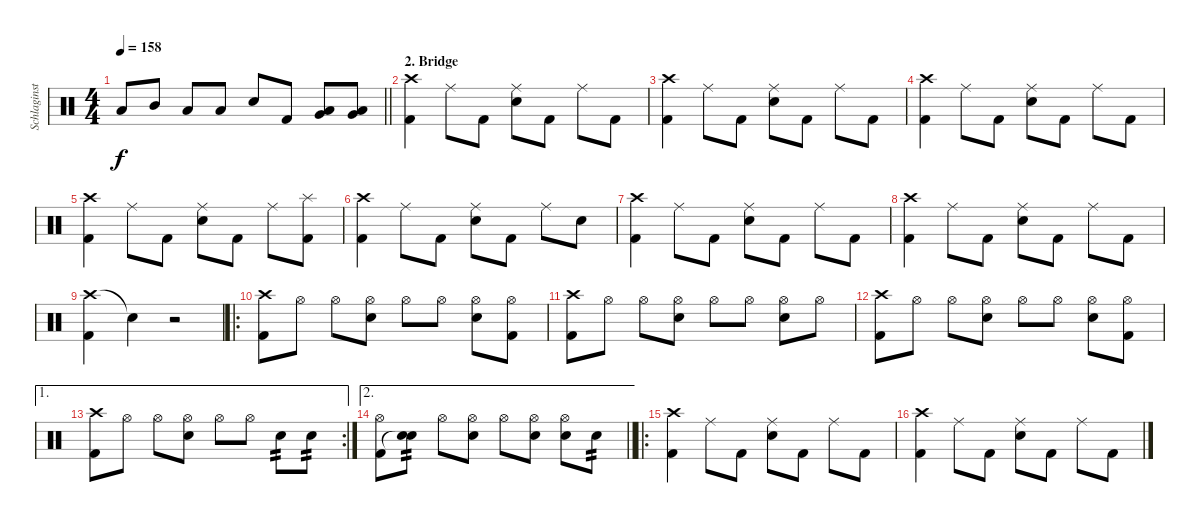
\track ("Schlaginstrumente - Auswahl" "Schlaginst") {instrument percussion}
\staff {score}
\articulation defaults
\ts (4 4)
\tempo 158
\clef neutral
\barLineRight lightlight
\ks c "Low Tom (hit)".8{dy f} "Mid Tom (hit)".8 "Low Tom (hit)".8 "Low Tom (hit)".8 "Snare (hit) 2".8 "Kick (hit) 2".8
("Low Floor Tom (hit)" "Very Low Tom (hit)").8 ("Low Floor Tom (hit)" "Very Low Tom (hit)").8 |
\section ("" "2. Bridge")
("Crash high (hit)" "Kick (hit) 2").4 "Ride (middle)".8 "Kick (hit) 2".8 ("Ride (middle)" "Snare (hit) 2").8 "Kick (hit) 2".8 "Ride (middle)".8 "Kick (hit) 2".8 |
("Crash high (hit)" "Kick (hit) 2").4 "Ride (middle)".8 "Kick (hit) 2".8 ("Ride (middle)" "Snare (hit) 2").8 "Kick (hit) 2".8 "Ride (middle)".8 "Kick (hit) 2".8 |
("Crash high (hit)" "Kick (hit) 2").4 "Ride (middle)".8 "Kick (hit) 2".8 ("Ride (middle)" "Snare (hit) 2").8 "Kick (hit) 2".8 "Ride (middle)".8 "Kick (hit) 2".8 |
("Crash high (hit)" "Kick (hit) 2").4 "Ride (middle)".8 "Kick (hit) 2".8 ("Ride (middle)" "Snare (hit) 2").8 "Kick (hit) 2".8 "Ride (middle)".8 ("Splash (hit)" "Kick (hit) 2").8 |
("Crash high (hit)" "Kick (hit) 2").4 "Ride (middle)".8 "Kick (hit) 2".8 ("Ride (middle)" "Snare (hit) 2").8 "Kick (hit) 2".8 "Ride (middle)".8 "Snare (hit) 2".8 |
("Crash high (hit)" "Kick (hit) 2").4 "Ride (middle)".8 "Kick (hit) 2".8 ("Ride (middle)" "Snare (hit) 2").8 "Kick (hit) 2".8 "Ride (middle)".8 "Kick (hit) 2".8 |
("Crash high (hit)" "Kick (hit) 2").4 "Ride (middle)".8 "Kick (hit) 2".8 ("Ride (middle)" "Snare (hit) 2").8 "Kick (hit) 2".8 "Ride (middle)".8 "Kick (hit) 2".8 |
("Crash high (hit)" "Kick (hit) 2").4 "Snare (hit)"{t}.4 r.2 |
\ro
("Crash high (hit)" "Kick (hit) 2").8 "Hi-Hat (open)".8 "Hi-Hat (open)".8 ("Hi-Hat (open)" "Snare (hit) 2").8 "Hi-Hat (open)".8 "Hi-Hat (open)".8 ("Hi-Hat (open)" "Snare (hit) 2").8 ("Hi-Hat (open)" "Kick (hit) 2").8 |
("Crash high (hit)" "Kick (hit) 2").8 "Hi-Hat (open)".8 "Hi-Hat (open)".8 ("Hi-Hat (open)" "Snare (hit) 2").8 "Hi-Hat (open)".8 "Hi-Hat (open)".8 ("Hi-Hat (open)" "Snare (hit) 2").8 "Hi-Hat (open)".8 |
("Crash high (hit)" "Kick (hit) 2").8 "Hi-Hat (open)".8 "Hi-Hat (open)".8 ("Hi-Hat (open)" "Snare (hit) 2").8 "Hi-Hat (open)".8 "Hi-Hat (open)".8 ("Hi-Hat (open)" "Snare (hit) 2").8 ("Hi-Hat (open)" "Kick (hit) 2").8 |
\ae 1
\rc 2
("Crash high (hit)" "Kick (hit) 2").8 "Hi-Hat (open)".8 "Hi-Hat (open)".8 ("Hi-Hat (open)" "Snare (hit) 2").8 "Hi-Hat (open)".8 "Hi-Hat (open)".8 "Snare (hit) 2".8{tp 2} "Snare (hit) 2".8{tp 2} |
\ae 2
\barLineRight lightlight
("Hi-Hat (open)" "Kick (hit) 2").8 ("Snare (hit) 2" "Snare (hit)"{t}).8{tp 2} "Hi-Hat (open)".8 ("Hi-Hat (open)" "Snare (hit) 2").8 "Hi-Hat (open)".8 ("Hi-Hat (open)" "Snare (hit) 2").8 ("Hi-Hat (open)" "Snare (hit) 2").8 "Snare (hit) 2".8{tp 2} |
\ro
("Crash high (hit)" "Kick (hit) 2").4 "Ride (middle)".8 "Kick (hit) 2".8 ("Ride (middle)" "Snare (hit) 2").8 "Kick (hit) 2".8 "Ride (middle)".8 "Kick (hit) 2".8 |
("Crash high (hit)" "Kick (hit) 2").4 "Ride (middle)".8 "Kick (hit) 2".8 ("Ride (middle)" "Snare (hit) 2").8 "Kick (hit) 2".8 "Ride (middle)".8 "Kick (hit) 2".8
